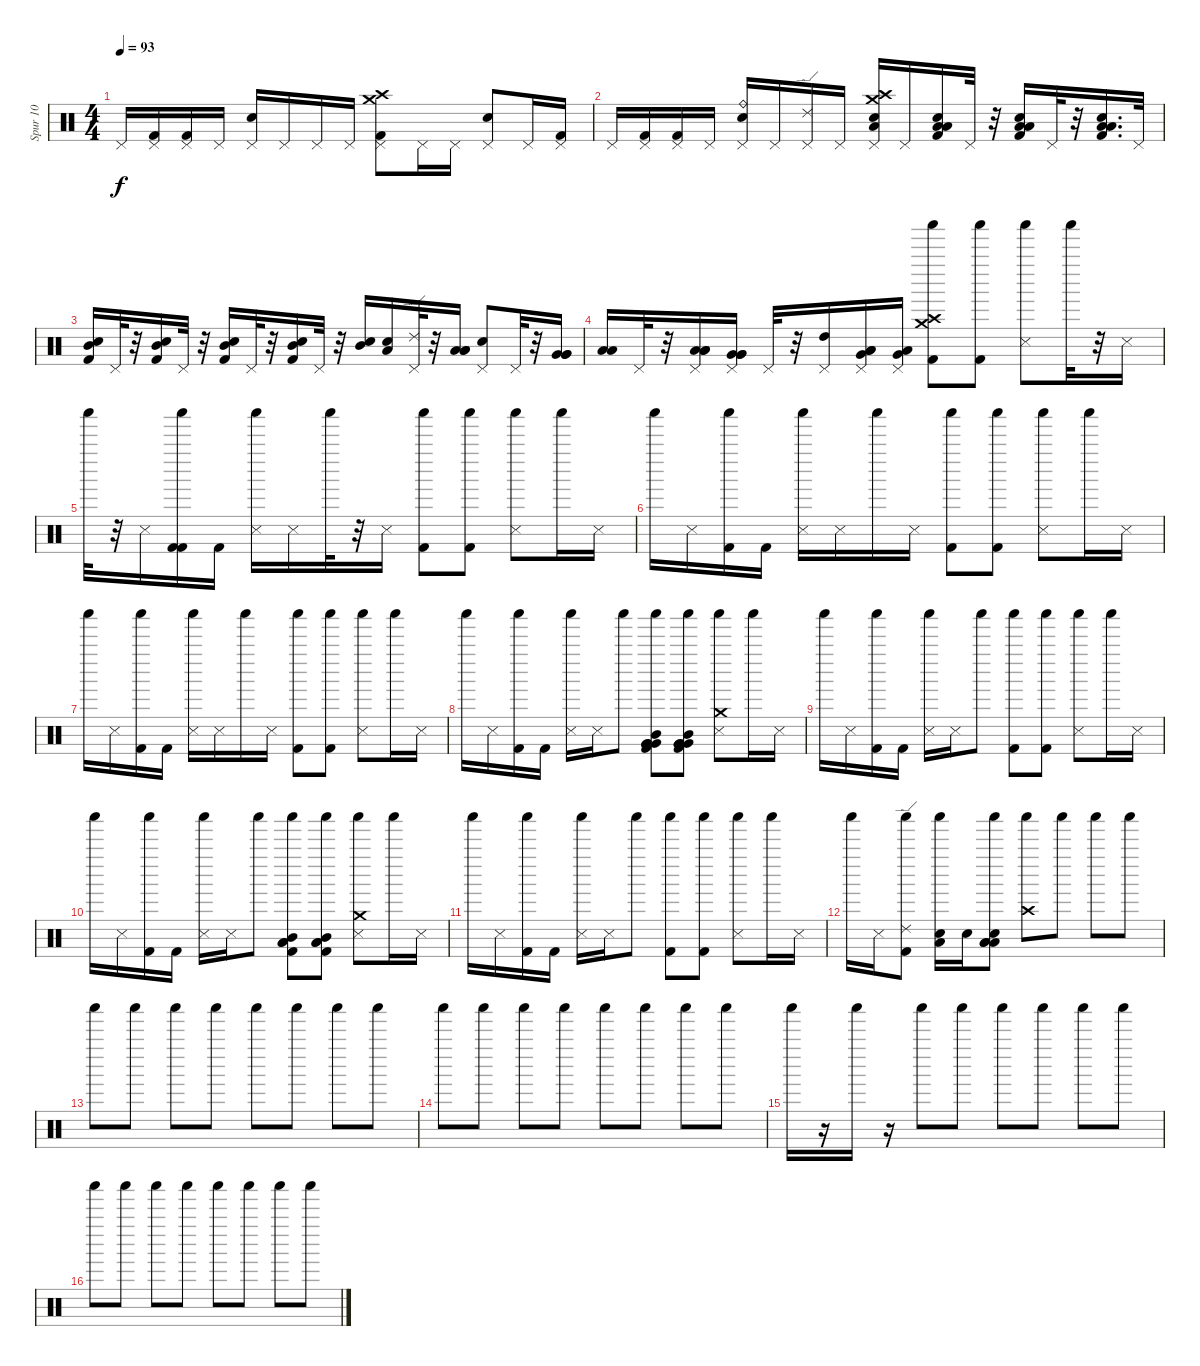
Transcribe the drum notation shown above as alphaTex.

\track ("Spur 10" "Spur 10") {instrument percussion}
\staff {score}
\articulation defaults
\ts (4 4)
\tempo 93
\clef neutral
\ks c "Pedal Hi-Hat (hit)".16{dy f}
("Kick (hit) 2" "Pedal Hi-Hat (hit)").16 ("Kick (hit) 2" "Pedal Hi-Hat (hit)").16 "Pedal Hi-Hat (hit)".16 ("Electric Snare (hit)" "Pedal Hi-Hat (hit)").16 "Pedal Hi-Hat (hit)".16 "Pedal Hi-Hat (hit)".16 "Pedal Hi-Hat (hit)".16 ("Kick (hit) 2" "Crash medium (hit)" "Crash high (hit)" "Pedal Hi-Hat (hit)").8 "Pedal Hi-Hat (hit)".16 "Pedal Hi-Hat (hit)".16 ("Electric Snare (hit)" "Pedal Hi-Hat (hit)").8 "Pedal Hi-Hat (hit)".16 ("Kick (hit) 2" "Pedal Hi-Hat (hit)").16 |
"Pedal Hi-Hat (hit)".16 ("Kick (hit) 2" "Pedal Hi-Hat (hit)").16 ("Kick (hit) 2" "Pedal Hi-Hat (hit)").16 "Pedal Hi-Hat (hit)".16 ("Ride (bell)" "Electric Snare (hit)" "Pedal Hi-Hat (hit)").16 "Pedal Hi-Hat (hit)".16 ("Ride (edge) 2" "Pedal Hi-Hat (hit)").16 "Pedal Hi-Hat (hit)".16 ("Low Tom (hit)" "Snare (hit) 2" "Crash high (hit)" "Crash medium (hit)" "Pedal Hi-Hat (hit)").16 "Pedal Hi-Hat (hit)".16 ("Low Tom (hit)" "Kick (hit) 2" "Low Tom (hit)" "Snare (hit) 2").16 "Pedal Hi-Hat (hit)".32 r.32 ("Low Tom (hit)" "Kick (hit) 2" "Low Tom (hit)" "Snare (hit) 2").16 "Pedal Hi-Hat (hit)".32 r.32 ("Low Tom (hit)" "Kick (hit) 2" "Low Tom (hit)" "Snare (hit) 2").16{d} "Pedal Hi-Hat (hit)".32 |
("Kick (hit) 2" "Mid Tom (hit)" "Electric Snare (hit)").16 "Pedal Hi-Hat (hit)".32 r.32 ("Kick (hit) 2" "Mid Tom (hit)" "Electric Snare (hit)").16 "Pedal Hi-Hat (hit)".32 r.32 ("Kick (hit) 2" "Mid Tom (hit)" "Electric Snare (hit)").16 "Pedal Hi-Hat (hit)".32 r.32 ("Kick (hit) 2" "Mid Tom (hit)" "Electric Snare (hit)").16 "Pedal Hi-Hat (hit)".32 r.32 ("Mid Tom (hit)" "Electric Snare (hit)").16 ("Electric Snare (hit)" "Low Tom (hit)").16 ("Pedal Hi-Hat (hit)" "Ride (edge) 2").32 r.32 ("Low Tom (hit)" "Low Tom (hit)" "Low Tom (hit)").16 ("Pedal Hi-Hat (hit)" "Electric Snare (hit)").8 "Pedal Hi-Hat (hit)".32 r.32 ("Very Low Tom (hit)" "Very Low Tom (hit)" "Very Low Tom (hit)").16 |
("Low Tom (hit)" "Low Tom (hit)").16 "Pedal Hi-Hat (hit)".32 r.32 ("Pedal Hi-Hat (hit)" "Low Tom (hit)" "Low Tom (hit)" "Low Tom (hit)").16 ("Pedal Hi-Hat (hit)" "Very Low Tom (hit)" "Very Low Tom (hit)" "Very Low Tom (hit)").16 "Pedal Hi-Hat (hit)".32 r.32 ("High Tom (hit)" "Pedal Hi-Hat (hit)").16 ("Low Tom (hit)" "Very Low Tom (hit)" "Low Tom (hit)" "Pedal Hi-Hat (hit)").16 ("Very Low Tom (hit)" "Low Floor Tom (hit)" "Pedal Hi-Hat (hit)").16 ("Shaker (hit)" "Kick (hit) 2" "Crash medium (hit)" "Crash high (hit)").8 ("Shaker (hit)" "Kick (hit) 2").8 ("Shaker (hit)" "Snare (side stick) 3").8 "Shaker (hit)".32 r.32 "Snare (side stick) 3".16 |
"Shaker (hit)".32 r.32 "Snare (side stick) 3".16 ("Shaker (hit)" "Kick (hit) 2" "Kick (hit) 2").16 "Kick (hit) 2".16 ("Shaker (hit)" "Snare (side stick) 3").16 "Snare (side stick) 3".16 "Shaker (hit)".32 r.32 "Snare (side stick) 3".16 ("Shaker (hit)" "Kick (hit) 2").8 ("Shaker (hit)" "Kick (hit) 2").8 ("Shaker (hit)" "Snare (side stick) 3").8 "Shaker (hit)".16 "Snare (side stick) 3".16 |
"Shaker (hit)".16 "Snare (side stick) 3".16 ("Shaker (hit)" "Kick (hit) 2").16 "Kick (hit) 2".16 ("Shaker (hit)" "Snare (side stick) 3").16 "Snare (side stick) 3".16 "Shaker (hit)".16 "Snare (side stick) 3".16 ("Shaker (hit)" "Kick (hit) 2").8 ("Shaker (hit)" "Kick (hit) 2").8 ("Shaker (hit)" "Snare (side stick) 3").8 "Shaker (hit)".16 "Snare (side stick) 3".16 |
"Shaker (hit)".16 "Snare (side stick) 3".16 ("Shaker (hit)" "Kick (hit) 2").16 "Kick (hit) 2".16 ("Shaker (hit)" "Snare (side stick) 3").16 "Snare (side stick) 3".16 "Shaker (hit)".16 "Snare (side stick) 3".16 ("Shaker (hit)" "Kick (hit) 2").8 ("Shaker (hit)" "Kick (hit) 2").8 ("Shaker (hit)" "Snare (side stick) 3").8 "Shaker (hit)".16 "Snare (side stick) 3".16 |
"Shaker (hit)".16 "Snare (side stick) 3".16 ("Shaker (hit)" "Kick (hit) 2").16 "Kick (hit) 2".16 ("Shaker (hit)" "Snare (side stick) 3").16 "Snare (side stick) 3".16 "Shaker (hit)".8 ("Shaker (hit)" "Mid Tom (hit)" "Very Low Tom (hit)" "Very Low Tom (hit)" "Very Low Tom (hit)" "Kick (hit) 2").8 ("Shaker (hit)" "Mid Tom (hit)" "Very Low Tom (hit)" "Very Low Tom (hit)" "Very Low Tom (hit)" "Kick (hit) 2").8 ("Shaker (hit)" "Crash medium (hit)" "Snare (side stick) 3").8 "Shaker (hit)".16 "Snare (side stick) 3".16 |
"Shaker (hit)".16 "Snare (side stick) 3".16 ("Shaker (hit)" "Kick (hit) 2").16 "Kick (hit) 2".16 ("Shaker (hit)" "Snare (side stick) 3").16 "Snare (side stick) 3".16 "Shaker (hit)".8 ("Shaker (hit)" "Kick (hit) 2").8 ("Shaker (hit)" "Kick (hit) 2").8 ("Shaker (hit)" "Snare (side stick) 3").8 "Shaker (hit)".16 "Snare (side stick) 3".16 |
"Shaker (hit)".16 "Snare (side stick) 3".16 ("Shaker (hit)" "Kick (hit) 2").16 "Kick (hit) 2".16 ("Shaker (hit)" "Snare (side stick) 3").16 "Snare (side stick) 3".16 "Shaker (hit)".8 ("Shaker (hit)" "Low Tom (hit)" "Mid Tom (hit)" "Low Tom (hit)" "Kick (hit) 2").8 ("Shaker (hit)" "Low Tom (hit)" "Low Tom (hit)" "Mid Tom (hit)" "Kick (hit) 2").8 ("Shaker (hit)" "Snare (side stick) 3" "Crash medium (hit)").8 "Shaker (hit)".16 "Snare (side stick) 3".16 |
"Shaker (hit)".16 "Snare (side stick) 3".16 ("Shaker (hit)" "Kick (hit) 2").16 "Kick (hit) 2".16 ("Shaker (hit)" "Snare (side stick) 3").16 "Snare (side stick) 3".16 "Shaker (hit)".8 ("Shaker (hit)" "Kick (hit) 2").8 ("Shaker (hit)" "Kick (hit) 2").8 ("Shaker (hit)" "Snare (side stick) 3").8 "Shaker (hit)".16 "Snare (side stick) 3".16 |
"Shaker (hit)".16 "Snare (side stick) 3".16 ("Shaker (hit)" "Ride (edge) 2" "Kick (hit) 2").8 ("Shaker (hit)" "Low Tom (hit)" "Electric Snare (hit)").16 "Electric Snare (hit)".16 ("Shaker (hit)" "Low Floor Tom (hit)" "Low Floor Tom (hit)" "Low Floor Tom (hit)" "Electric Snare (hit)").8 ("Shaker (hit)" "Crash high (hit)").8 "Shaker (hit)".8 "Shaker (hit)".8 "Shaker (hit)".8 |
"Shaker (hit)".8 "Shaker (hit)".8 "Shaker (hit)".8 "Shaker (hit)".8 "Shaker (hit)".8 "Shaker (hit)".8 "Shaker (hit)".8 "Shaker (hit)".8 |
"Shaker (hit)".8 "Shaker (hit)".8 "Shaker (hit)".8 "Shaker (hit)".8 "Shaker (hit)".8 "Shaker (hit)".8 "Shaker (hit)".8 "Shaker (hit)".8 |
"Shaker (hit)".16 r.16 "Shaker (hit)".16 r.16 "Shaker (hit)".8 "Shaker (hit)".8 "Shaker (hit)".8 "Shaker (hit)".8 "Shaker (hit)".8 "Shaker (hit)".8 |
"Shaker (hit)".8 "Shaker (hit)".8 "Shaker (hit)".8 "Shaker (hit)".8 "Shaker (hit)".8 "Shaker (hit)".8 "Shaker (hit)".8 "Shaker (hit)".8
